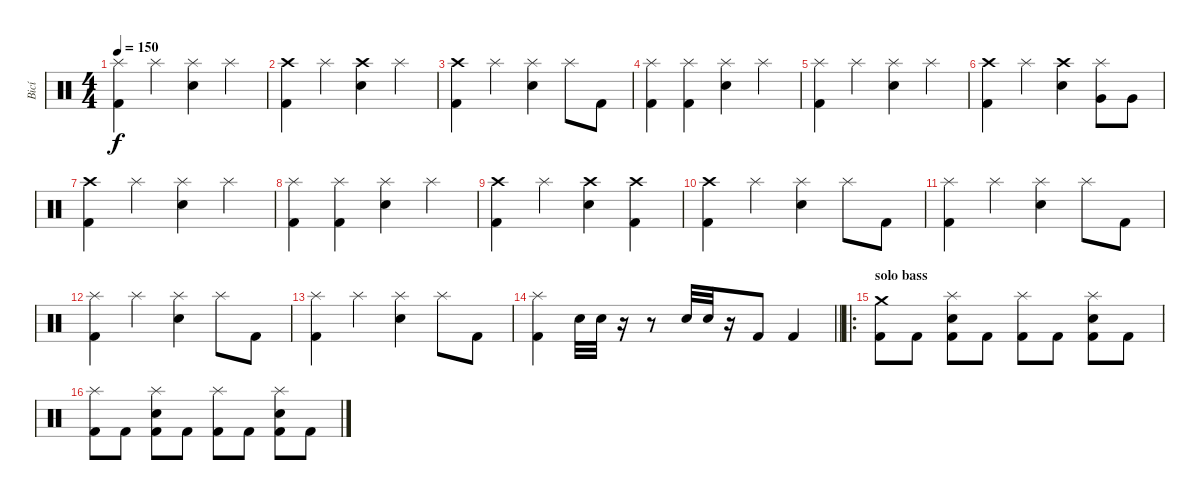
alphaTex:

\track ("Bicí" "Bicí") {instrument percussion}
\staff {score}
\articulation defaults
\ts (4 4)
\tempo 150
\clef neutral
\ks c
("Splash (hit)" "Kick (hit) 2").4{dy f} "Splash (hit)".4 ("Splash (hit)" "Electric Snare (hit)").4 "Splash (hit)".4 |
("Crash high (hit)" "Kick (hit) 2").4 "Splash (hit)".4 ("Crash high (hit)" "Electric Snare (hit)").4 "Splash (hit)".4 |
("Crash high (hit)" "Kick (hit) 2").4 "Splash (hit)".4 ("Splash (hit)" "Electric Snare (hit)").4 "Splash (hit)".8 "Kick (hit) 2".8 |
("Splash (hit)" "Kick (hit) 2").4 ("Splash (hit)" "Kick (hit) 2").4 ("Splash (hit)" "Electric Snare (hit)").4 "Splash (hit)".4 |
("Splash (hit)" "Kick (hit) 2").4 "Splash (hit)".4 ("Splash (hit)" "Electric Snare (hit)").4 "Splash (hit)".4 |
("Crash high (hit)" "Kick (hit) 2").4 "Splash (hit)".4 ("Crash high (hit)" "Electric Snare (hit)").4 ("Splash (hit)" "Very Low Tom (hit)").8 "Very Low Tom (hit)".8 |
("Crash high (hit)" "Kick (hit) 2").4 "Splash (hit)".4 ("Splash (hit)" "Electric Snare (hit)").4 "Splash (hit)".4 |
("Splash (hit)" "Kick (hit) 2").4 ("Splash (hit)" "Kick (hit) 2").4 ("Splash (hit)" "Electric Snare (hit)").4 "Splash (hit)".4 |
("Crash high (hit)" "Kick (hit) 2").4 "Splash (hit)".4 ("Crash high (hit)" "Electric Snare (hit)").4 ("Crash high (hit)" "Kick (hit) 2").4 |
("Crash high (hit)" "Kick (hit) 2").4 "Splash (hit)".4 ("Splash (hit)" "Electric Snare (hit)").4 "Splash (hit)".8 "Kick (hit) 2".8 |
("Splash (hit)" "Kick (hit) 2").4 "Splash (hit)".4 ("Splash (hit)" "Electric Snare (hit)").4 "Splash (hit)".8 "Kick (hit) 2".8 |
("Splash (hit)" "Kick (hit) 2").4 "Splash (hit)".4 ("Splash (hit)" "Electric Snare (hit)").4 "Splash (hit)".8 "Kick (hit) 2".8 |
("Splash (hit)" "Kick (hit) 2").4 "Splash (hit)".4 ("Splash (hit)" "Electric Snare (hit)").4 "Splash (hit)".8 "Kick (hit) 2".8 |
\barLineRight lightlight
("Splash (hit)" "Kick (hit) 2").4 "Electric Snare (hit)".32 "Electric Snare (hit)".32 r.16 r.8 "Electric Snare (hit)".32 "Electric Snare (hit)".32 r.16 "Kick (hit) 2".8 "Kick (hit) 2".4 |
\ro
\section ("" "solo bass")
("Crash medium (hit)" "Kick (hit) 2").8 "Kick (hit) 2".8 ("Splash (hit)" "Electric Snare (hit)" "Kick (hit) 2").8 "Kick (hit) 2".8 ("Splash (hit)" "Kick (hit) 2").8 "Kick (hit) 2".8 ("Splash (hit)" "Electric Snare (hit)" "Kick (hit) 2").8 "Kick (hit) 2".8 |
("Splash (hit)" "Kick (hit) 2").8 "Kick (hit) 2".8 ("Splash (hit)" "Electric Snare (hit)" "Kick (hit) 2").8 "Kick (hit) 2".8 ("Splash (hit)" "Kick (hit) 2").8 "Kick (hit) 2".8 ("Splash (hit)" "Electric Snare (hit)" "Kick (hit) 2").8 "Kick (hit) 2".8
